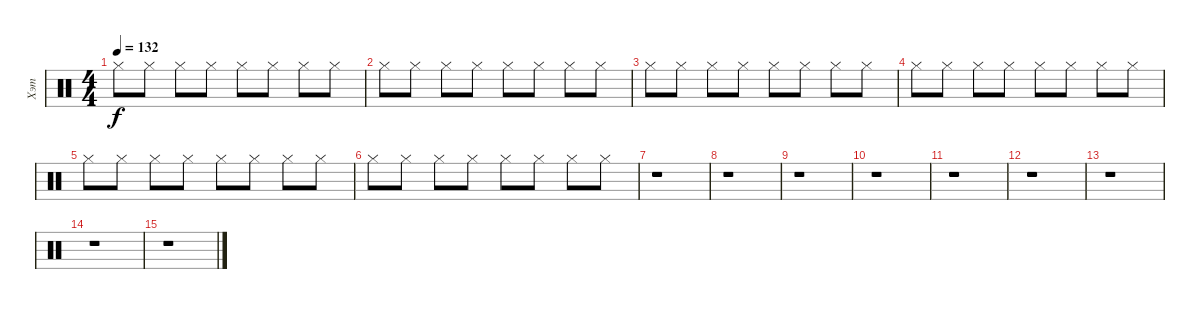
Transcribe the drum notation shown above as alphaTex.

\track ("Хэт" "Хэт") {instrument percussion}
\staff {score}
\articulation defaults
\ts (4 4)
\tempo 132
\clef neutral
\ks c "Hi-Hat (closed)".8{dy f} "Hi-Hat (closed)".8 "Hi-Hat (closed)".8 "Hi-Hat (closed)".8 "Hi-Hat (closed)".8 "Hi-Hat (closed)".8 "Hi-Hat (closed)".8 "Hi-Hat (closed)".8
|
"Hi-Hat (closed)".8 "Hi-Hat (closed)".8 "Hi-Hat (closed)".8 "Hi-Hat (closed)".8 "Hi-Hat (closed)".8 "Hi-Hat (closed)".8 "Hi-Hat (closed)".8 "Hi-Hat (closed)".8 |
"Hi-Hat (closed)".8 "Hi-Hat (closed)".8 "Hi-Hat (closed)".8 "Hi-Hat (closed)".8 "Hi-Hat (closed)".8 "Hi-Hat (closed)".8 "Hi-Hat (closed)".8 "Hi-Hat (closed)".8 |
"Hi-Hat (closed)".8 "Hi-Hat (closed)".8 "Hi-Hat (closed)".8 "Hi-Hat (closed)".8 "Hi-Hat (closed)".8 "Hi-Hat (closed)".8 "Hi-Hat (closed)".8 "Hi-Hat (closed)".8 |
"Hi-Hat (closed)".8 "Hi-Hat (closed)".8 "Hi-Hat (closed)".8 "Hi-Hat (closed)".8 "Hi-Hat (closed)".8 "Hi-Hat (closed)".8 "Hi-Hat (closed)".8 "Hi-Hat (closed)".8 |
"Hi-Hat (closed)".8 "Hi-Hat (closed)".8 "Hi-Hat (closed)".8 "Hi-Hat (closed)".8 "Hi-Hat (closed)".8 "Hi-Hat (closed)".8 "Hi-Hat (closed)".8 "Hi-Hat (closed)".8 |
r.1 |
r.1 |
r.1 |
r.1 |
r.1 |
r.1 |
r.1 |
r.1 |
r.1
